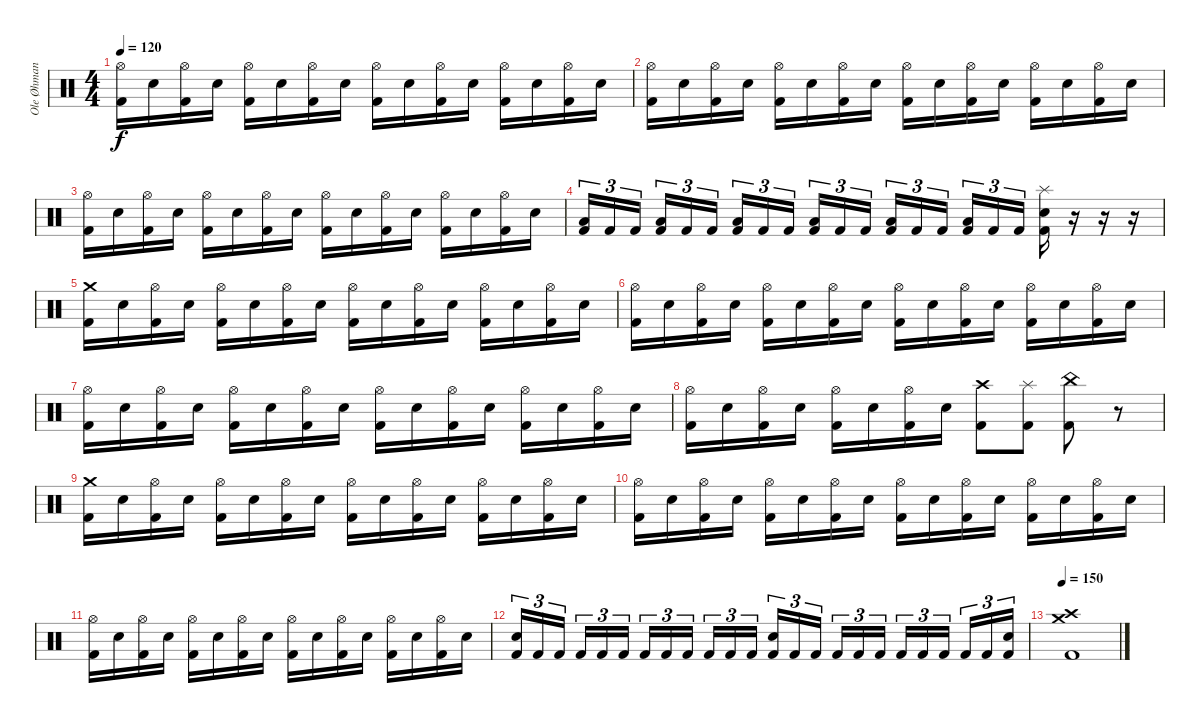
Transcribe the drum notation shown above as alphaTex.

\track ("Ole Øhman (Trommur)" "Ole Øhman ") {instrument percussion}
\staff {score}
\articulation defaults
\ts (4 4)
\tempo 120
\clef neutral
\ks c
("Hi-Hat (open)" "Kick (hit) 2").16{dy f} "Electric Snare (hit)".16 ("Hi-Hat (open)" "Kick (hit) 2").16 "Electric Snare (hit)".16 ("Hi-Hat (open)" "Kick (hit) 2").16 "Electric Snare (hit)".16 ("Hi-Hat (open)" "Kick (hit) 2").16 "Electric Snare (hit)".16 ("Hi-Hat (open)" "Kick (hit) 2").16 "Electric Snare (hit)".16 ("Hi-Hat (open)" "Kick (hit) 2").16 "Electric Snare (hit)".16 ("Hi-Hat (open)" "Kick (hit) 2").16 "Electric Snare (hit)".16 ("Hi-Hat (open)" "Kick (hit) 2").16 "Electric Snare (hit)".16 |
("Hi-Hat (open)" "Kick (hit) 2").16 "Electric Snare (hit)".16 ("Hi-Hat (open)" "Kick (hit) 2").16 "Electric Snare (hit)".16 ("Hi-Hat (open)" "Kick (hit) 2").16 "Electric Snare (hit)".16 ("Hi-Hat (open)" "Kick (hit) 2").16 "Electric Snare (hit)".16 ("Hi-Hat (open)" "Kick (hit) 2").16 "Electric Snare (hit)".16 ("Hi-Hat (open)" "Kick (hit) 2").16 "Electric Snare (hit)".16 ("Hi-Hat (open)" "Kick (hit) 2").16 "Electric Snare (hit)".16 ("Hi-Hat (open)" "Kick (hit) 2").16 "Electric Snare (hit)".16 |
("Hi-Hat (open)" "Kick (hit) 2").16 "Electric Snare (hit)".16 ("Hi-Hat (open)" "Kick (hit) 2").16 "Electric Snare (hit)".16 ("Hi-Hat (open)" "Kick (hit) 2").16 "Electric Snare (hit)".16 ("Hi-Hat (open)" "Kick (hit) 2").16 "Electric Snare (hit)".16 ("Hi-Hat (open)" "Kick (hit) 2").16 "Electric Snare (hit)".16 ("Hi-Hat (open)" "Kick (hit) 2").16 "Electric Snare (hit)".16 ("Hi-Hat (open)" "Kick (hit) 2").16 "Electric Snare (hit)".16 ("Hi-Hat (open)" "Kick (hit) 2").16 "Electric Snare (hit)".16 |
("Low Tom (hit)" "Kick (hit) 2").16{tu (3 2)} "Kick (hit) 2".16{tu (3 2)} "Kick (hit) 2".16{tu (3 2)} ("Low Tom (hit)" "Kick (hit) 2").16{tu (3 2)} "Kick (hit) 2".16{tu (3 2)} "Kick (hit) 2".16{tu (3 2)} ("Low Tom (hit)" "Kick (hit) 2").16{tu (3 2)} "Kick (hit) 2".16{tu (3 2)} "Kick (hit) 2".16{tu (3 2)} ("Low Tom (hit)" "Kick (hit) 2").16{tu (3 2)} "Kick (hit) 2".16{tu (3 2)} "Kick (hit) 2".16{tu (3 2)} ("Low Tom (hit)" "Kick (hit) 2").16{tu (3 2)} "Kick (hit) 2".16{tu (3 2)} "Kick (hit) 2".16{tu (3 2)} ("Low Tom (hit)" "Kick (hit) 2").16{tu (3 2)} "Kick (hit) 2".16{tu (3 2)} "Kick (hit) 2".16{tu (3 2)} ("Splash (hit)" "Electric Snare (hit)" "Kick (hit) 2").16 r.16 r.16 r.16 |
("Crash medium (hit)" "Kick (hit) 2").16 "Electric Snare (hit)".16 ("Hi-Hat (open)" "Kick (hit) 2").16 "Electric Snare (hit)".16 ("Hi-Hat (open)" "Kick (hit) 2").16 "Electric Snare (hit)".16 ("Hi-Hat (open)" "Kick (hit) 2").16 "Electric Snare (hit)".16 ("Hi-Hat (open)" "Kick (hit) 2").16 "Electric Snare (hit)".16 ("Hi-Hat (open)" "Kick (hit) 2").16 "Electric Snare (hit)".16 ("Hi-Hat (open)" "Kick (hit) 2").16 "Electric Snare (hit)".16 ("Hi-Hat (open)" "Kick (hit) 2").16 "Electric Snare (hit)".16 |
("Hi-Hat (open)" "Kick (hit) 2").16 "Electric Snare (hit)".16 ("Hi-Hat (open)" "Kick (hit) 2").16 "Electric Snare (hit)".16 ("Hi-Hat (open)" "Kick (hit) 2").16 "Electric Snare (hit)".16 ("Hi-Hat (open)" "Kick (hit) 2").16 "Electric Snare (hit)".16 ("Hi-Hat (open)" "Kick (hit) 2").16 "Electric Snare (hit)".16 ("Hi-Hat (open)" "Kick (hit) 2").16 "Electric Snare (hit)".16 ("Hi-Hat (open)" "Kick (hit) 2").16 "Electric Snare (hit)".16 ("Hi-Hat (open)" "Kick (hit) 2").16 "Electric Snare (hit)".16 |
("Hi-Hat (open)" "Kick (hit) 2").16 "Electric Snare (hit)".16 ("Hi-Hat (open)" "Kick (hit) 2").16 "Electric Snare (hit)".16 ("Hi-Hat (open)" "Kick (hit) 2").16 "Electric Snare (hit)".16 ("Hi-Hat (open)" "Kick (hit) 2").16 "Electric Snare (hit)".16 ("Hi-Hat (open)" "Kick (hit) 2").16 "Electric Snare (hit)".16 ("Hi-Hat (open)" "Kick (hit) 2").16 "Electric Snare (hit)".16 ("Hi-Hat (open)" "Kick (hit) 2").16 "Electric Snare (hit)".16 ("Hi-Hat (open)" "Kick (hit) 2").16 "Electric Snare (hit)".16 |
("Hi-Hat (open)" "Kick (hit) 2").16 "Electric Snare (hit)".16 ("Hi-Hat (open)" "Kick (hit) 2").16 "Electric Snare (hit)".16 ("Hi-Hat (open)" "Kick (hit) 2").16 "Electric Snare (hit)".16 ("Hi-Hat (open)" "Kick (hit) 2").16 "Electric Snare (hit)".16 ("Crash high (hit)" "Kick (hit) 2").8 ("Splash (hit)" "Kick (hit) 2").8 ("China (hit)" "Kick (hit) 2").8 r.8 |
("Crash medium (hit)" "Kick (hit) 2").16 "Electric Snare (hit)".16 ("Hi-Hat (open)" "Kick (hit) 2").16 "Electric Snare (hit)".16 ("Hi-Hat (open)" "Kick (hit) 2").16 "Electric Snare (hit)".16 ("Hi-Hat (open)" "Kick (hit) 2").16 "Electric Snare (hit)".16 ("Hi-Hat (open)" "Kick (hit) 2").16 "Electric Snare (hit)".16 ("Hi-Hat (open)" "Kick (hit) 2").16 "Electric Snare (hit)".16 ("Hi-Hat (open)" "Kick (hit) 2").16 "Electric Snare (hit)".16 ("Hi-Hat (open)" "Kick (hit) 2").16 "Electric Snare (hit)".16 |
("Hi-Hat (open)" "Kick (hit) 2").16 "Electric Snare (hit)".16 ("Hi-Hat (open)" "Kick (hit) 2").16 "Electric Snare (hit)".16 ("Hi-Hat (open)" "Kick (hit) 2").16 "Electric Snare (hit)".16 ("Hi-Hat (open)" "Kick (hit) 2").16 "Electric Snare (hit)".16 ("Hi-Hat (open)" "Kick (hit) 2").16 "Electric Snare (hit)".16 ("Hi-Hat (open)" "Kick (hit) 2").16 "Electric Snare (hit)".16 ("Hi-Hat (open)" "Kick (hit) 2").16 "Electric Snare (hit)".16 ("Hi-Hat (open)" "Kick (hit) 2").16 "Electric Snare (hit)".16 |
("Hi-Hat (open)" "Kick (hit) 2").16 "Electric Snare (hit)".16 ("Hi-Hat (open)" "Kick (hit) 2").16 "Electric Snare (hit)".16 ("Hi-Hat (open)" "Kick (hit) 2").16 "Electric Snare (hit)".16 ("Hi-Hat (open)" "Kick (hit) 2").16 "Electric Snare (hit)".16 ("Hi-Hat (open)" "Kick (hit) 2").16 "Electric Snare (hit)".16 ("Hi-Hat (open)" "Kick (hit) 2").16 "Electric Snare (hit)".16 ("Hi-Hat (open)" "Kick (hit) 2").16 "Electric Snare (hit)".16 ("Hi-Hat (open)" "Kick (hit) 2").16 "Electric Snare (hit)".16 |
("Electric Snare (hit)" "Kick (hit) 2").16{tu (3 2)} "Kick (hit) 2".16{tu (3 2)} "Kick (hit) 2".16{tu (3 2)} "Kick (hit) 2".16{tu (3 2)} "Kick (hit) 2".16{tu (3 2)} "Kick (hit) 2".16{tu (3 2)} "Kick (hit) 2".16{tu (3 2)} "Kick (hit) 2".16{tu (3 2)} "Kick (hit) 2".16{tu (3 2)} "Kick (hit) 2".16{tu (3 2)} "Kick (hit) 2".16{tu (3 2)} "Kick (hit) 2".16{tu (3 2)} ("Electric Snare (hit)" "Kick (hit) 2").16{tu (3 2)} "Kick (hit) 2".16{tu (3 2)} "Kick (hit) 2".16{tu (3 2)} "Kick (hit) 2".16{tu (3 2)} "Kick (hit) 2".16{tu (3 2)} "Kick (hit) 2".16{tu (3 2)} "Kick (hit) 2".16{tu (3 2)} "Kick (hit) 2".16{tu (3 2)} "Kick (hit) 2".16{tu (3 2)} "Kick (hit) 2".16{tu (3 2)} "Kick (hit) 2".16{tu (3 2)} ("Electric Snare (hit)" "Kick (hit) 2").16{tu (3 2)} |
\tempo 150
("Crash medium (hit)" "Crash high (hit)" "Kick (hit) 2").1
